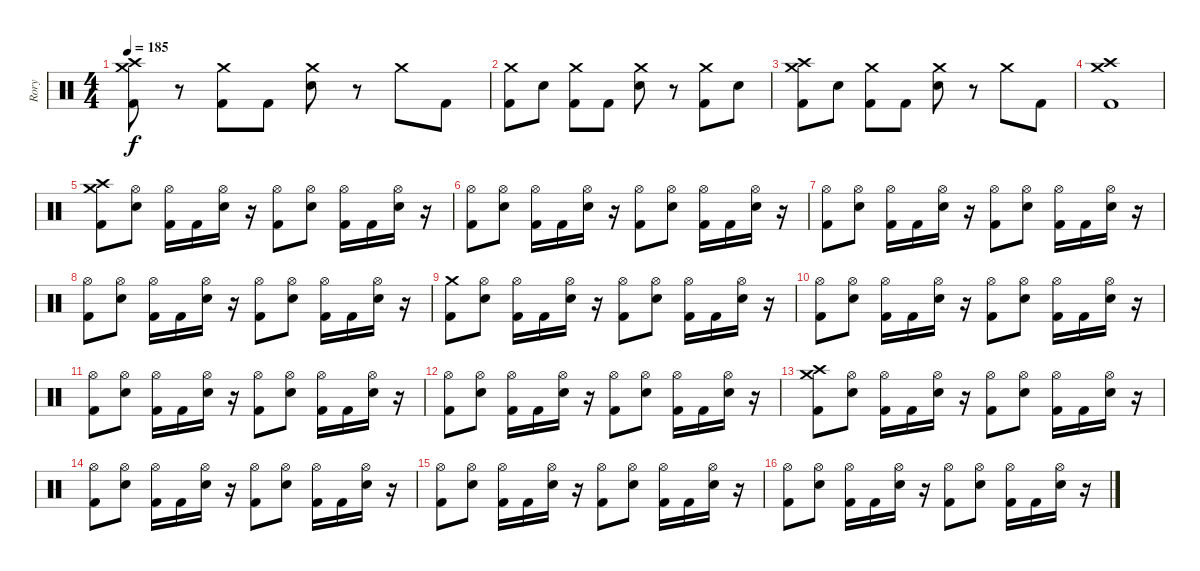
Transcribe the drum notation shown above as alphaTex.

\track ("Rory" "Rory") {instrument percussion}
\staff {score}
\articulation defaults
\ts (4 4)
\tempo 185
\clef neutral
\ks c
("Crash high (hit)" "Crash medium (hit)" "Kick (hit) 2").8{dy f} r.8 ("Crash medium (hit)" "Kick (hit) 2").8 "Kick (hit) 2".8 ("Crash medium (hit)" "Electric Snare (hit)").8 r.8 "Crash medium (hit)".8 "Kick (hit) 2".8 |
("Crash medium (hit)" "Kick (hit) 2").8 "Electric Snare (hit)".8 ("Crash medium (hit)" "Kick (hit) 2").8 "Kick (hit) 2".8 ("Crash medium (hit)" "Electric Snare (hit)").8 r.8 ("Crash medium (hit)" "Kick (hit) 2").8 "Electric Snare (hit)".8 |
("Crash high (hit)" "Crash medium (hit)" "Kick (hit) 2").8 "Electric Snare (hit)".8 ("Crash medium (hit)" "Kick (hit) 2").8 "Kick (hit) 2".8 ("Crash medium (hit)" "Electric Snare (hit)").8 r.8 "Crash medium (hit)".8 "Kick (hit) 2".8 |
("Crash high (hit)" "Crash medium (hit)" "Kick (hit) 2").1 |
("Crash medium (hit)" "Crash high (hit)" "Kick (hit) 2").8 ("Hi-Hat (open)" "Electric Snare (hit)").8 ("Hi-Hat (open)" "Kick (hit) 2").16 "Kick (hit) 2".16 ("Hi-Hat (open)" "Electric Snare (hit)").16 r.16 ("Hi-Hat (open)" "Kick (hit) 2").8 ("Hi-Hat (open)" "Electric Snare (hit)").8 ("Hi-Hat (open)" "Kick (hit) 2").16 "Kick (hit) 2".16 ("Hi-Hat (open)" "Electric Snare (hit)").16 r.16 |
("Hi-Hat (open)" "Kick (hit) 2").8 ("Hi-Hat (open)" "Electric Snare (hit)").8 ("Hi-Hat (open)" "Kick (hit) 2").16 "Kick (hit) 2".16 ("Hi-Hat (open)" "Electric Snare (hit)").16 r.16 ("Hi-Hat (open)" "Kick (hit) 2").8 ("Hi-Hat (open)" "Electric Snare (hit)").8 ("Hi-Hat (open)" "Kick (hit) 2").16 "Kick (hit) 2".16 ("Hi-Hat (open)" "Electric Snare (hit)").16 r.16 |
("Hi-Hat (open)" "Kick (hit) 2").8 ("Hi-Hat (open)" "Electric Snare (hit)").8 ("Hi-Hat (open)" "Kick (hit) 2").16 "Kick (hit) 2".16 ("Hi-Hat (open)" "Electric Snare (hit)").16 r.16 ("Hi-Hat (open)" "Kick (hit) 2").8 ("Hi-Hat (open)" "Electric Snare (hit)").8 ("Hi-Hat (open)" "Kick (hit) 2").16 "Kick (hit) 2".16 ("Hi-Hat (open)" "Electric Snare (hit)").16 r.16 |
("Hi-Hat (open)" "Kick (hit) 2").8 ("Hi-Hat (open)" "Electric Snare (hit)").8 ("Hi-Hat (open)" "Kick (hit) 2").16 "Kick (hit) 2".16 ("Hi-Hat (open)" "Electric Snare (hit)").16 r.16 ("Hi-Hat (open)" "Kick (hit) 2").8 ("Hi-Hat (open)" "Electric Snare (hit)").8 ("Hi-Hat (open)" "Kick (hit) 2").16 "Kick (hit) 2".16 ("Hi-Hat (open)" "Electric Snare (hit)").16 r.16 |
("Crash medium (hit)" "Kick (hit) 2").8 ("Hi-Hat (open)" "Electric Snare (hit)").8 ("Hi-Hat (open)" "Kick (hit) 2").16 "Kick (hit) 2".16 ("Hi-Hat (open)" "Electric Snare (hit)").16 r.16 ("Hi-Hat (open)" "Kick (hit) 2").8 ("Hi-Hat (open)" "Electric Snare (hit)").8 ("Hi-Hat (open)" "Kick (hit) 2").16 "Kick (hit) 2".16 ("Hi-Hat (open)" "Electric Snare (hit)").16 r.16 |
("Hi-Hat (open)" "Kick (hit) 2").8 ("Hi-Hat (open)" "Electric Snare (hit)").8 ("Hi-Hat (open)" "Kick (hit) 2").16 "Kick (hit) 2".16 ("Hi-Hat (open)" "Electric Snare (hit)").16 r.16 ("Hi-Hat (open)" "Kick (hit) 2").8 ("Hi-Hat (open)" "Electric Snare (hit)").8 ("Hi-Hat (open)" "Kick (hit) 2").16 "Kick (hit) 2".16 ("Hi-Hat (open)" "Electric Snare (hit)").16 r.16 |
("Hi-Hat (open)" "Kick (hit) 2").8 ("Hi-Hat (open)" "Electric Snare (hit)").8 ("Hi-Hat (open)" "Kick (hit) 2").16 "Kick (hit) 2".16 ("Hi-Hat (open)" "Electric Snare (hit)").16 r.16 ("Hi-Hat (open)" "Kick (hit) 2").8 ("Hi-Hat (open)" "Electric Snare (hit)").8 ("Hi-Hat (open)" "Kick (hit) 2").16 "Kick (hit) 2".16 ("Hi-Hat (open)" "Electric Snare (hit)").16 r.16 |
("Hi-Hat (open)" "Kick (hit) 2").8 ("Hi-Hat (open)" "Electric Snare (hit)").8 ("Hi-Hat (open)" "Kick (hit) 2").16 "Kick (hit) 2".16 ("Hi-Hat (open)" "Electric Snare (hit)").16 r.16 ("Hi-Hat (open)" "Kick (hit) 2").8 ("Hi-Hat (open)" "Electric Snare (hit)").8 ("Hi-Hat (open)" "Kick (hit) 2").16 "Kick (hit) 2".16 ("Hi-Hat (open)" "Electric Snare (hit)").16 r.16 |
("Crash medium (hit)" "Crash high (hit)" "Kick (hit) 2").8 ("Hi-Hat (open)" "Electric Snare (hit)").8 ("Hi-Hat (open)" "Kick (hit) 2").16 "Kick (hit) 2".16 ("Hi-Hat (open)" "Electric Snare (hit)").16 r.16 ("Hi-Hat (open)" "Kick (hit) 2").8 ("Hi-Hat (open)" "Electric Snare (hit)").8 ("Hi-Hat (open)" "Kick (hit) 2").16 "Kick (hit) 2".16 ("Hi-Hat (open)" "Electric Snare (hit)").16 r.16 |
("Hi-Hat (open)" "Kick (hit) 2").8 ("Hi-Hat (open)" "Electric Snare (hit)").8 ("Hi-Hat (open)" "Kick (hit) 2").16 "Kick (hit) 2".16 ("Hi-Hat (open)" "Electric Snare (hit)").16 r.16 ("Hi-Hat (open)" "Kick (hit) 2").8 ("Hi-Hat (open)" "Electric Snare (hit)").8 ("Hi-Hat (open)" "Kick (hit) 2").16 "Kick (hit) 2".16 ("Hi-Hat (open)" "Electric Snare (hit)").16 r.16 |
("Hi-Hat (open)" "Kick (hit) 2").8 ("Hi-Hat (open)" "Electric Snare (hit)").8 ("Hi-Hat (open)" "Kick (hit) 2").16 "Kick (hit) 2".16 ("Hi-Hat (open)" "Electric Snare (hit)").16 r.16 ("Hi-Hat (open)" "Kick (hit) 2").8 ("Hi-Hat (open)" "Electric Snare (hit)").8 ("Hi-Hat (open)" "Kick (hit) 2").16 "Kick (hit) 2".16 ("Hi-Hat (open)" "Electric Snare (hit)").16 r.16 |
("Hi-Hat (open)" "Kick (hit) 2").8 ("Hi-Hat (open)" "Electric Snare (hit)").8 ("Hi-Hat (open)" "Kick (hit) 2").16 "Kick (hit) 2".16 ("Hi-Hat (open)" "Electric Snare (hit)").16 r.16 ("Hi-Hat (open)" "Kick (hit) 2").8 ("Hi-Hat (open)" "Electric Snare (hit)").8 ("Hi-Hat (open)" "Kick (hit) 2").16 "Kick (hit) 2".16 ("Hi-Hat (open)" "Electric Snare (hit)").16 r.16
